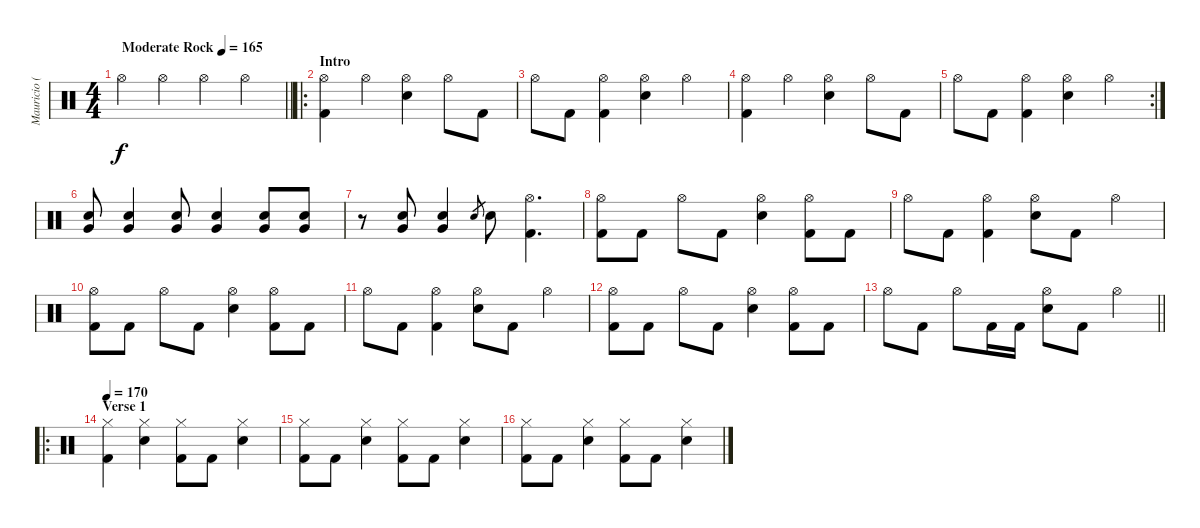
\track ("Mauricio (Drum)" "Mauricio (") {instrument percussion}
\staff {score}
\articulation defaults
\ts (4 4)
\tempo (165 "Moderate Rock")
\clef neutral
\barLineRight lightlight
\ks c "Hi-Hat (open)".4{dy f} "Hi-Hat (open)".4 "Hi-Hat (open)".4 "Hi-Hat (open)".4
|
\ro
\section ("" "Intro")
("Hi-Hat (open)" "Kick (hit) 2").4 "Hi-Hat (open)".4 ("Hi-Hat (open)" "Snare (hit) 2").4 "Hi-Hat (open)".8 "Kick (hit) 2".8 |
"Hi-Hat (open)".8 "Kick (hit) 2".8 ("Hi-Hat (open)" "Kick (hit) 2").4 ("Hi-Hat (open)" "Snare (hit) 2").4 "Hi-Hat (open)".4 |
("Hi-Hat (open)" "Kick (hit) 2").4 "Hi-Hat (open)".4 ("Hi-Hat (open)" "Snare (hit) 2").4 "Hi-Hat (open)".8 "Kick (hit) 2".8 |
\rc 2 "Hi-Hat (open)".8 "Kick (hit) 2".8
("Hi-Hat (open)" "Kick (hit) 2").4 ("Hi-Hat (open)" "Snare (hit) 2").4 "Hi-Hat (open)".4 |
("Very Low Tom (hit)" "Snare (hit) 2").8 ("Very Low Tom (hit)" "Snare (hit) 2").4 ("Very Low Tom (hit)" "Snare (hit) 2").8 ("Very Low Tom (hit)" "Snare (hit) 2").4 ("Very Low Tom (hit)" "Snare (hit) 2").8 ("Very Low Tom (hit)" "Snare (hit) 2").8 |
r.8 ("Very Low Tom (hit)" "Snare (hit) 2").8 ("Very Low Tom (hit)" "Snare (hit) 2").4 "Snare (hit) 2".8{gr} "Snare (hit) 2".8 ("Hi-Hat (open)" "Kick (hit) 2").4{d} |
("Hi-Hat (open)" "Kick (hit) 2").8 "Kick (hit) 2".8 "Hi-Hat (open)".8 "Kick (hit) 2".8 ("Hi-Hat (open)" "Snare (hit) 2").4 ("Hi-Hat (open)" "Kick (hit) 2").8 "Kick (hit) 2".8 |
"Hi-Hat (open)".8 "Kick (hit) 2".8 ("Hi-Hat (open)" "Kick (hit) 2").4 ("Hi-Hat (open)" "Snare (hit) 2").8 "Kick (hit) 2".8 "Hi-Hat (open)".4 |
("Hi-Hat (open)" "Kick (hit) 2").8 "Kick (hit) 2".8 "Hi-Hat (open)".8 "Kick (hit) 2".8 ("Hi-Hat (open)" "Snare (hit) 2").4 ("Hi-Hat (open)" "Kick (hit) 2").8 "Kick (hit) 2".8 |
"Hi-Hat (open)".8 "Kick (hit) 2".8 ("Hi-Hat (open)" "Kick (hit) 2").4 ("Hi-Hat (open)" "Snare (hit) 2").8 "Kick (hit) 2".8 "Hi-Hat (open)".4 |
("Hi-Hat (open)" "Kick (hit) 2").8 "Kick (hit) 2".8 "Hi-Hat (open)".8 "Kick (hit) 2".8 ("Hi-Hat (open)" "Snare (hit) 2").4 ("Hi-Hat (open)" "Kick (hit) 2").8 "Kick (hit) 2".8 |
\barLineRight lightlight "Hi-Hat (open)".8 "Kick (hit) 2".8 "Hi-Hat (open)".8 "Kick (hit) 2".16 "Kick (hit) 2".16
("Hi-Hat (open)" "Snare (hit) 2").8 "Kick (hit) 2".8 "Hi-Hat (open)".4 |
\ro
\section ("" "Verse 1")
\tempo 170
("Hi-Hat (closed)" "Kick (hit) 2").4 ("Hi-Hat (closed)" "Snare (hit) 2").4 ("Hi-Hat (closed)" "Kick (hit) 2").8 "Kick (hit) 2".8 ("Hi-Hat (closed)" "Snare (hit) 2").4 |
("Hi-Hat (closed)" "Kick (hit) 2").8 "Kick (hit) 2".8 ("Hi-Hat (closed)" "Snare (hit) 2").4 ("Hi-Hat (closed)" "Kick (hit) 2").8 "Kick (hit) 2".8 ("Hi-Hat (closed)" "Snare (hit) 2").4 |
("Hi-Hat (closed)" "Kick (hit) 2").8 "Kick (hit) 2".8 ("Hi-Hat (closed)" "Snare (hit) 2").4 ("Hi-Hat (closed)" "Kick (hit) 2").8 "Kick (hit) 2".8 ("Hi-Hat (closed)" "Snare (hit) 2").4
